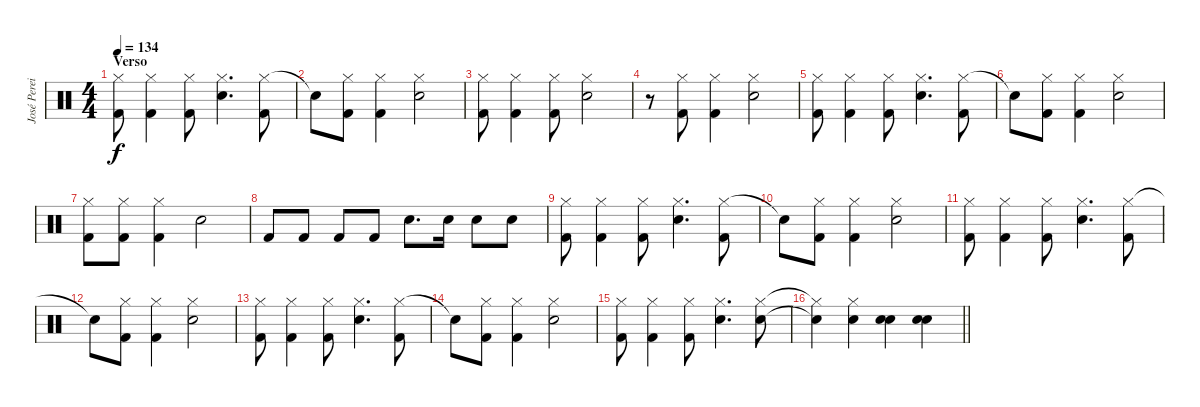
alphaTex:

\track ("José Pereira" "José Perei") {instrument percussion}
\staff {score}
\articulation defaults
\ts (4 4)
\section ("" "Verso")
\tempo 134
\clef neutral
\ks c
("Hi-Hat (closed)" "Kick (hit) 2").8{dy f} ("Hi-Hat (closed)" "Kick (hit) 2").4 ("Hi-Hat (closed)" "Kick (hit) 2").8 ("Hi-Hat (closed)" "Snare (hit) 2").4{d} ("Hi-Hat (closed)" "Kick (hit) 2").8 |
"Snare (hit)"{t}.8 ("Hi-Hat (closed)" "Kick (hit) 2").8 ("Hi-Hat (closed)" "Kick (hit) 2").4 ("Hi-Hat (closed)" "Snare (hit) 2").2 |
("Hi-Hat (closed)" "Kick (hit) 2").8 ("Hi-Hat (closed)" "Kick (hit) 2").4 ("Hi-Hat (closed)" "Kick (hit) 2").8 ("Hi-Hat (closed)" "Snare (hit) 2").2 |
r.8 ("Hi-Hat (closed)" "Kick (hit) 2").8 ("Hi-Hat (closed)" "Kick (hit) 2").4 ("Hi-Hat (closed)" "Snare (hit) 2").2 |
("Hi-Hat (closed)" "Kick (hit) 2").8 ("Hi-Hat (closed)" "Kick (hit) 2").4 ("Hi-Hat (closed)" "Kick (hit) 2").8 ("Hi-Hat (closed)" "Snare (hit) 2").4{d} ("Hi-Hat (closed)" "Kick (hit) 2").8 |
"Snare (hit)"{t}.8 ("Hi-Hat (closed)" "Kick (hit) 2").8 ("Hi-Hat (closed)" "Kick (hit) 2").4 ("Hi-Hat (closed)" "Snare (hit) 2").2 |
("Hi-Hat (closed)" "Kick (hit) 2").8 ("Hi-Hat (closed)" "Kick (hit) 2").8 ("Hi-Hat (closed)" "Kick (hit) 2").4 "Snare (hit) 2".2 |
"Kick (hit) 2".8 "Kick (hit) 2".8 "Kick (hit) 2".8 "Kick (hit) 2".8 "Snare (hit) 2".8{d} "Snare (hit) 2".16 "Snare (hit) 2".8 "Snare (hit) 2".8 |
("Hi-Hat (closed)" "Kick (hit) 2").8 ("Hi-Hat (closed)" "Kick (hit) 2").4 ("Hi-Hat (closed)" "Kick (hit) 2").8 ("Hi-Hat (closed)" "Snare (hit) 2").4{d} ("Hi-Hat (closed)" "Kick (hit) 2").8 |
"Snare (hit)"{t}.8 ("Hi-Hat (closed)" "Kick (hit) 2").8 ("Hi-Hat (closed)" "Kick (hit) 2").4 ("Hi-Hat (closed)" "Snare (hit) 2").2 |
("Hi-Hat (closed)" "Kick (hit) 2").8 ("Hi-Hat (closed)" "Kick (hit) 2").4 ("Hi-Hat (closed)" "Kick (hit) 2").8 ("Hi-Hat (closed)" "Snare (hit) 2").4{d} ("Hi-Hat (closed)" "Kick (hit) 2").8 |
"Snare (hit)"{t}.8 ("Hi-Hat (closed)" "Kick (hit) 2").8 ("Hi-Hat (closed)" "Kick (hit) 2").4 ("Hi-Hat (closed)" "Snare (hit) 2").2 |
("Hi-Hat (closed)" "Kick (hit) 2").8 ("Hi-Hat (closed)" "Kick (hit) 2").4 ("Hi-Hat (closed)" "Kick (hit) 2").8 ("Hi-Hat (closed)" "Snare (hit) 2").4{d} ("Hi-Hat (closed)" "Kick (hit) 2").8 |
"Snare (hit)"{t}.8 ("Hi-Hat (closed)" "Kick (hit) 2").8 ("Hi-Hat (closed)" "Kick (hit) 2").4 ("Hi-Hat (closed)" "Snare (hit) 2").2 |
("Hi-Hat (closed)" "Kick (hit) 2").8 ("Hi-Hat (closed)" "Kick (hit) 2").4 ("Hi-Hat (closed)" "Kick (hit) 2").8 ("Hi-Hat (closed)" "Snare (hit) 2").4{d} ("Hi-Hat (closed)" "Snare (hit) 2").8 |
\barLineRight lightlight
("Hi-Hat (closed)"{t} "Snare (hit) 2"{t}).4 ("Hi-Hat (closed)" "Snare (hit) 2").4 ("Snare (hit) 2" "Electric Snare (hit)").4 ("Snare (hit) 2" "Electric Snare (hit)").4
